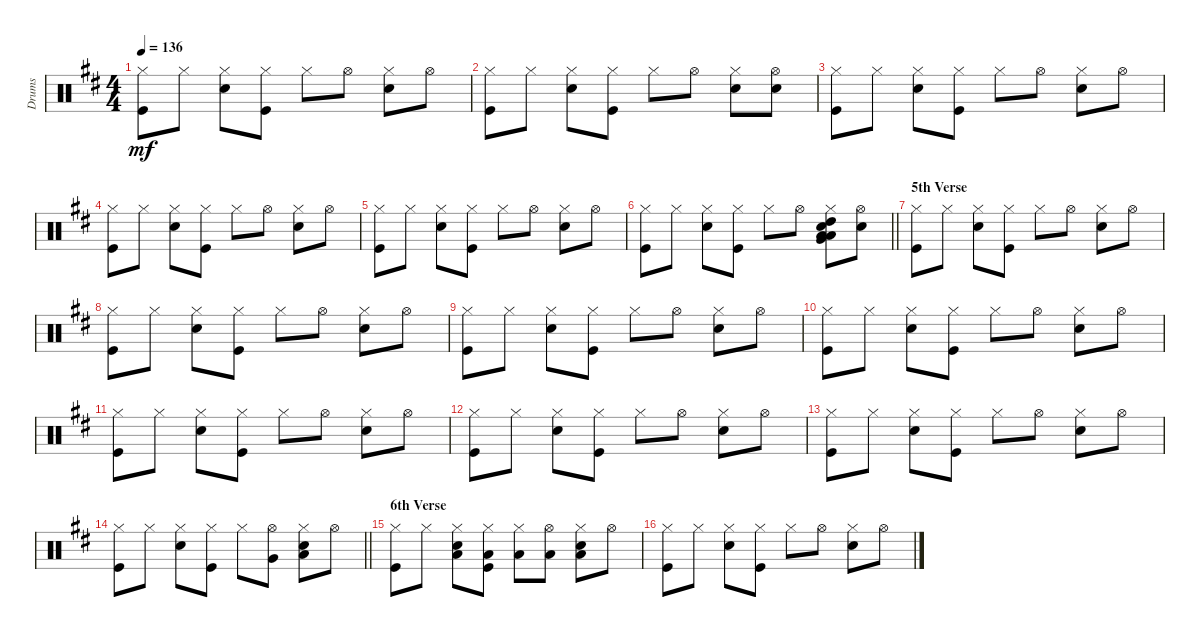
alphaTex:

\track ("Drums" "Drums") {instrument percussion}
\staff {score}
\articulation defaults
\ts (4 4)
\tempo 136
\clef neutral
\ks bminor
("Kick (hit)" "Hi-Hat (closed)").8{dy mf} "Hi-Hat (closed)".8 ("Snare (hit) 2" "Hi-Hat (closed)").8 ("Kick (hit)" "Hi-Hat (closed)").8 "Hi-Hat (closed)".8 "Hi-Hat (open)".8 ("Snare (hit) 2" "Hi-Hat (closed)").8 "Hi-Hat (open)".8 |
("Kick (hit)" "Hi-Hat (closed)").8 "Hi-Hat (closed)".8 ("Snare (hit) 2" "Hi-Hat (closed)").8 ("Kick (hit)" "Hi-Hat (closed)").8 "Hi-Hat (closed)".8 "Hi-Hat (open)".8 ("Snare (hit) 2" "Hi-Hat (closed)").8 ("Snare (hit) 2" "Hi-Hat (open)").8 |
("Kick (hit)" "Hi-Hat (closed)").8 "Hi-Hat (closed)".8 ("Snare (hit) 2" "Hi-Hat (closed)").8 ("Kick (hit)" "Hi-Hat (closed)").8 "Hi-Hat (closed)".8 "Hi-Hat (open)".8 ("Snare (hit) 2" "Hi-Hat (closed)").8 "Hi-Hat (open)".8 |
("Kick (hit)" "Hi-Hat (closed)").8 "Hi-Hat (closed)".8 ("Snare (hit) 2" "Hi-Hat (closed)").8 ("Kick (hit)" "Hi-Hat (closed)").8 "Hi-Hat (closed)".8 "Hi-Hat (open)".8 ("Snare (hit) 2" "Hi-Hat (closed)").8 "Hi-Hat (open)".8 |
("Kick (hit)" "Hi-Hat (closed)").8 "Hi-Hat (closed)".8 ("Snare (hit) 2" "Hi-Hat (closed)").8 ("Kick (hit)" "Hi-Hat (closed)").8 "Hi-Hat (closed)".8 "Hi-Hat (open)".8 ("Snare (hit) 2" "Hi-Hat (closed)").8 "Hi-Hat (open)".8 |
\barLineRight lightlight
("Kick (hit)" "Hi-Hat (closed)").8 "Hi-Hat (closed)".8 ("Snare (hit) 2" "Hi-Hat (closed)").8 ("Kick (hit)" "Hi-Hat (closed)").8 "Hi-Hat (closed)".8 "Hi-Hat (open)".8 ("High Tom (hit)" "Low Tom (hit)" "Very Low Tom (hit)" "Low Floor Tom (hit)" "Snare (hit) 2" "Hi-Hat (closed)").8 ("Snare (hit) 2" "Hi-Hat (open)").8 |
\section ("" "5th Verse")
("Kick (hit)" "Hi-Hat (closed)").8 "Hi-Hat (closed)".8 ("Snare (hit) 2" "Hi-Hat (closed)").8 ("Kick (hit)" "Hi-Hat (closed)").8 "Hi-Hat (closed)".8 "Hi-Hat (open)".8 ("Snare (hit) 2" "Hi-Hat (closed)").8 "Hi-Hat (open)".8 |
("Kick (hit)" "Hi-Hat (closed)").8 "Hi-Hat (closed)".8 ("Snare (hit) 2" "Hi-Hat (closed)").8 ("Kick (hit)" "Hi-Hat (closed)").8 "Hi-Hat (closed)".8 "Hi-Hat (open)".8 ("Snare (hit) 2" "Hi-Hat (closed)").8 "Hi-Hat (open)".8 |
("Kick (hit)" "Hi-Hat (closed)").8 "Hi-Hat (closed)".8 ("Snare (hit) 2" "Hi-Hat (closed)").8 ("Kick (hit)" "Hi-Hat (closed)").8 "Hi-Hat (closed)".8 "Hi-Hat (open)".8 ("Snare (hit) 2" "Hi-Hat (closed)").8 "Hi-Hat (open)".8 |
("Kick (hit)" "Hi-Hat (closed)").8 "Hi-Hat (closed)".8 ("Snare (hit) 2" "Hi-Hat (closed)").8 ("Kick (hit)" "Hi-Hat (closed)").8 "Hi-Hat (closed)".8 "Hi-Hat (open)".8 ("Snare (hit) 2" "Hi-Hat (closed)").8 "Hi-Hat (open)".8 |
("Kick (hit)" "Hi-Hat (closed)").8 "Hi-Hat (closed)".8 ("Snare (hit) 2" "Hi-Hat (closed)").8 ("Kick (hit)" "Hi-Hat (closed)").8 "Hi-Hat (closed)".8 "Hi-Hat (open)".8 ("Snare (hit) 2" "Hi-Hat (closed)").8 "Hi-Hat (open)".8 |
("Kick (hit)" "Hi-Hat (closed)").8 "Hi-Hat (closed)".8 ("Snare (hit) 2" "Hi-Hat (closed)").8 ("Kick (hit)" "Hi-Hat (closed)").8 "Hi-Hat (closed)".8 "Hi-Hat (open)".8 ("Snare (hit) 2" "Hi-Hat (closed)").8 "Hi-Hat (open)".8 |
("Kick (hit)" "Hi-Hat (closed)").8 "Hi-Hat (closed)".8 ("Snare (hit) 2" "Hi-Hat (closed)").8 ("Kick (hit)" "Hi-Hat (closed)").8 "Hi-Hat (closed)".8 "Hi-Hat (open)".8 ("Snare (hit) 2" "Hi-Hat (closed)").8 "Hi-Hat (open)".8 |
\barLineRight lightlight
("Kick (hit)" "Hi-Hat (closed)").8 "Hi-Hat (closed)".8 ("Snare (hit) 2" "Hi-Hat (closed)").8 ("Kick (hit)" "Hi-Hat (closed)").8 "Hi-Hat (closed)".8 ("Very Low Tom (hit)" "Hi-Hat (open)").8 ("Low Floor Tom (hit)" "Snare (hit) 2" "Hi-Hat (closed)").8 "Hi-Hat (open)".8 |
\section ("" "6th Verse")
("Kick (hit)" "Hi-Hat (closed)").8 "Hi-Hat (closed)".8 ("Low Floor Tom (hit)" "Snare (hit) 2" "Hi-Hat (closed)").8 ("Low Floor Tom (hit)" "Kick (hit)" "Hi-Hat (closed)").8 ("Low Floor Tom (hit)" "Hi-Hat (closed)").8 ("Low Floor Tom (hit)" "Hi-Hat (open)").8 ("Low Floor Tom (hit)" "Snare (hit) 2" "Hi-Hat (closed)").8 "Hi-Hat (open)".8 |
("Kick (hit)" "Hi-Hat (closed)").8 "Hi-Hat (closed)".8 ("Snare (hit) 2" "Hi-Hat (closed)").8 ("Kick (hit)" "Hi-Hat (closed)").8 "Hi-Hat (closed)".8 "Hi-Hat (open)".8 ("Snare (hit) 2" "Hi-Hat (closed)").8 "Hi-Hat (open)".8
